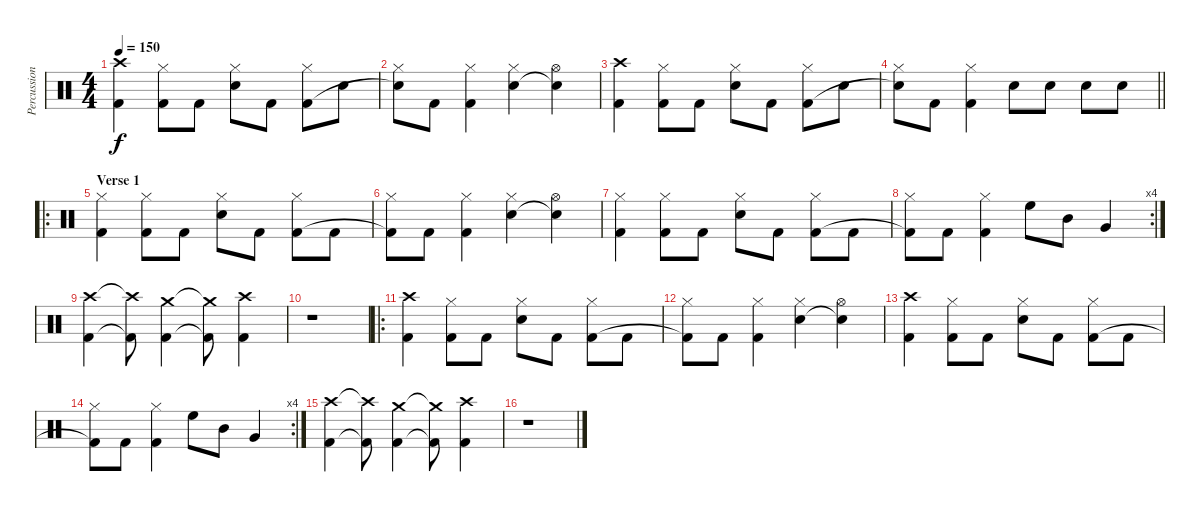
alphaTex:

\track ("Percussion" "Percussion") {instrument percussion}
\staff {score}
\articulation defaults
\ts (4 4)
\tempo 150
\clef neutral
\ks c
("Crash high (hit)" "Kick (hit) 2").4{dy f} ("Hi-Hat (closed)" "Kick (hit) 2").8 "Kick (hit) 2".8 ("Hi-Hat (closed)" "Snare (hit) 2").8 "Kick (hit) 2".8 ("Hi-Hat (closed)" "Kick (hit) 2").8 "Snare (hit) 2".8 |
("Hi-Hat (closed)" "Snare (hit) 2"{t}).8 "Kick (hit) 2".8 ("Hi-Hat (closed)" "Kick (hit) 2").4 ("Hi-Hat (closed)" "Snare (hit) 2").4 ("Hi-Hat (open)" "Snare (hit) 2"{t}).4 |
("Crash high (hit)" "Kick (hit) 2").4 ("Hi-Hat (closed)" "Kick (hit) 2").8 "Kick (hit) 2".8 ("Hi-Hat (closed)" "Snare (hit) 2").8 "Kick (hit) 2".8 ("Hi-Hat (closed)" "Kick (hit) 2").8 "Snare (hit) 2".8 |
\barLineRight lightlight
("Hi-Hat (closed)" "Snare (hit) 2"{t}).8 "Kick (hit) 2".8 ("Hi-Hat (closed)" "Kick (hit) 2").4 "Snare (hit) 2".8 "Snare (hit) 2".8 "Snare (hit) 2".8 "Snare (hit) 2".8 |
\ro
\section ("" "Verse 1")
("Hi-Hat (closed)" "Kick (hit) 2").4 ("Hi-Hat (closed)" "Kick (hit) 2").8 "Kick (hit) 2".8 ("Hi-Hat (closed)" "Snare (hit) 2").8 "Kick (hit) 2".8 ("Hi-Hat (closed)" "Kick (hit) 2").8 "Kick (hit) 2".8 |
("Hi-Hat (closed)" "Kick (hit) 2"{t}).8 "Kick (hit) 2".8 ("Hi-Hat (closed)" "Kick (hit) 2").4 ("Hi-Hat (closed)" "Snare (hit) 2").4 ("Hi-Hat (open)" "Snare (hit) 2"{t}).4 |
("Hi-Hat (closed)" "Kick (hit) 2").4 ("Hi-Hat (closed)" "Kick (hit) 2").8 "Kick (hit) 2".8 ("Hi-Hat (closed)" "Snare (hit) 2").8 "Kick (hit) 2".8 ("Hi-Hat (closed)" "Kick (hit) 2").8 "Kick (hit) 2".8 |
\rc 4
("Hi-Hat (closed)" "Kick (hit) 2"{t}).8 "Kick (hit) 2".8 ("Hi-Hat (closed)" "Kick (hit) 2").4 "High Floor Tom (hit)".8 "Mid Tom (hit)".8 "Very Low Tom (hit)".4 |
("Crash high (hit)" "Kick (hit) 2").4 ("Crash high (hit)"{t} "Kick (hit) 2"{t}).8 ("Crash medium (hit)" "Kick (hit) 2").4 ("Crash medium (hit)"{t} "Kick (hit) 2"{t}).8 ("Crash high (hit)" "Kick (hit) 2").4 |
r.1 |
\ro
("Crash high (hit)" "Kick (hit) 2").4 ("Hi-Hat (closed)" "Kick (hit) 2").8 "Kick (hit) 2".8 ("Hi-Hat (closed)" "Snare (hit) 2").8 "Kick (hit) 2".8 ("Hi-Hat (closed)" "Kick (hit) 2").8 "Kick (hit) 2".8 |
("Hi-Hat (closed)" "Kick (hit) 2"{t}).8 "Kick (hit) 2".8 ("Hi-Hat (closed)" "Kick (hit) 2").4 ("Hi-Hat (closed)" "Snare (hit) 2").4 ("Hi-Hat (open)" "Snare (hit) 2"{t}).4 |
("Crash high (hit)" "Kick (hit) 2").4 ("Hi-Hat (closed)" "Kick (hit) 2").8 "Kick (hit) 2".8 ("Hi-Hat (closed)" "Snare (hit) 2").8 "Kick (hit) 2".8 ("Hi-Hat (closed)" "Kick (hit) 2").8 "Kick (hit) 2".8 |
\rc 4
("Hi-Hat (closed)" "Kick (hit) 2"{t}).8 "Kick (hit) 2".8 ("Hi-Hat (closed)" "Kick (hit) 2").4 "High Floor Tom (hit)".8 "Mid Tom (hit)".8 "Very Low Tom (hit)".4 |
("Crash high (hit)" "Kick (hit) 2").4 ("Crash high (hit)"{t} "Kick (hit) 2"{t}).8 ("Crash medium (hit)" "Kick (hit) 2").4 ("Crash medium (hit)"{t} "Kick (hit) 2"{t}).8 ("Crash high (hit)" "Kick (hit) 2").4 |
r.1
